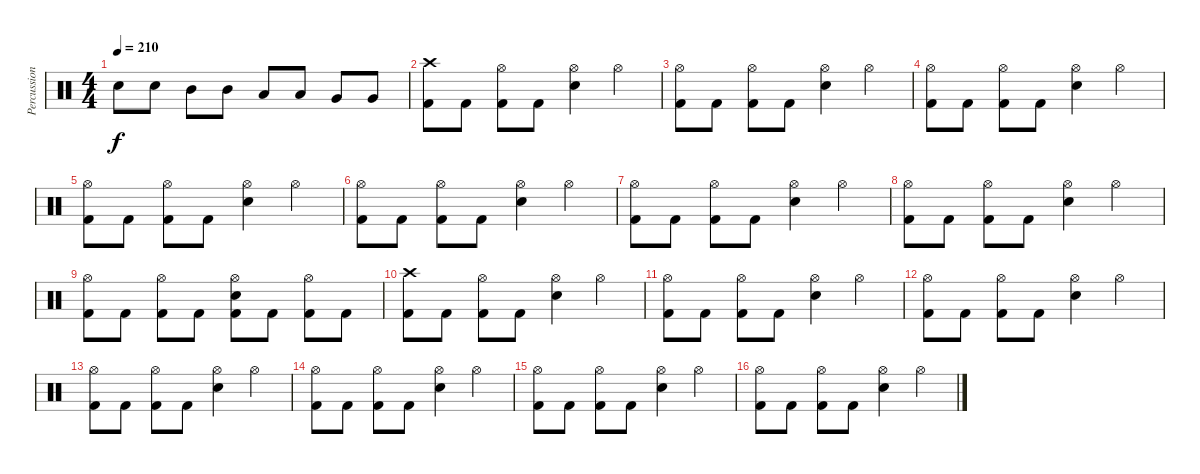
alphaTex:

\track ("Percussions" "Percussion") {instrument percussion}
\staff {score}
\articulation defaults
\ts (4 4)
\tempo 210
\clef neutral
\ks c "Electric Snare (hit)".8{dy f} "Electric Snare (hit)".8 "Mid Tom (hit)".8 "Mid Tom (hit)".8 "Low Tom (hit)".8 "Low Tom (hit)".8 "Very Low Tom (hit)".8 "Very Low Tom (hit)".8
|
("Kick (hit) 2" "Crash high (hit)").8 "Kick (hit) 2".8 ("Kick (hit) 2" "Hi-Hat (open)").8 "Kick (hit) 2".8 ("Electric Snare (hit)" "Hi-Hat (open)").4 "Hi-Hat (open)".4 |
("Kick (hit) 2" "Hi-Hat (open)").8 "Kick (hit) 2".8 ("Kick (hit) 2" "Hi-Hat (open)").8 "Kick (hit) 2".8 ("Electric Snare (hit)" "Hi-Hat (open)").4 "Hi-Hat (open)".4 |
("Kick (hit) 2" "Hi-Hat (open)").8 "Kick (hit) 2".8 ("Kick (hit) 2" "Hi-Hat (open)").8 "Kick (hit) 2".8 ("Electric Snare (hit)" "Hi-Hat (open)").4 "Hi-Hat (open)".4 |
("Kick (hit) 2" "Hi-Hat (open)").8 "Kick (hit) 2".8 ("Kick (hit) 2" "Hi-Hat (open)").8 "Kick (hit) 2".8 ("Electric Snare (hit)" "Hi-Hat (open)").4 "Hi-Hat (open)".4 |
("Kick (hit) 2" "Hi-Hat (open)").8 "Kick (hit) 2".8 ("Kick (hit) 2" "Hi-Hat (open)").8 "Kick (hit) 2".8 ("Electric Snare (hit)" "Hi-Hat (open)").4 "Hi-Hat (open)".4 |
("Kick (hit) 2" "Hi-Hat (open)").8 "Kick (hit) 2".8 ("Kick (hit) 2" "Hi-Hat (open)").8 "Kick (hit) 2".8 ("Electric Snare (hit)" "Hi-Hat (open)").4 "Hi-Hat (open)".4 |
("Kick (hit) 2" "Hi-Hat (open)").8 "Kick (hit) 2".8 ("Kick (hit) 2" "Hi-Hat (open)").8 "Kick (hit) 2".8 ("Electric Snare (hit)" "Hi-Hat (open)").4 "Hi-Hat (open)".4 |
("Kick (hit) 2" "Hi-Hat (open)").8 "Kick (hit) 2".8 ("Kick (hit) 2" "Hi-Hat (open)").8 "Kick (hit) 2".8 ("Kick (hit) 2" "Electric Snare (hit)" "Hi-Hat (open)").8 "Kick (hit) 2".8 ("Kick (hit) 2" "Hi-Hat (open)").8 "Kick (hit) 2".8 |
("Kick (hit) 2" "Crash high (hit)").8 "Kick (hit) 2".8 ("Kick (hit) 2" "Hi-Hat (open)").8 "Kick (hit) 2".8 ("Electric Snare (hit)" "Hi-Hat (open)").4 "Hi-Hat (open)".4 |
("Kick (hit) 2" "Hi-Hat (open)").8 "Kick (hit) 2".8 ("Kick (hit) 2" "Hi-Hat (open)").8 "Kick (hit) 2".8 ("Electric Snare (hit)" "Hi-Hat (open)").4 "Hi-Hat (open)".4 |
("Kick (hit) 2" "Hi-Hat (open)").8 "Kick (hit) 2".8 ("Kick (hit) 2" "Hi-Hat (open)").8 "Kick (hit) 2".8 ("Electric Snare (hit)" "Hi-Hat (open)").4 "Hi-Hat (open)".4 |
("Kick (hit) 2" "Hi-Hat (open)").8 "Kick (hit) 2".8 ("Kick (hit) 2" "Hi-Hat (open)").8 "Kick (hit) 2".8 ("Electric Snare (hit)" "Hi-Hat (open)").4 "Hi-Hat (open)".4 |
("Kick (hit) 2" "Hi-Hat (open)").8 "Kick (hit) 2".8 ("Kick (hit) 2" "Hi-Hat (open)").8 "Kick (hit) 2".8 ("Electric Snare (hit)" "Hi-Hat (open)").4 "Hi-Hat (open)".4 |
("Kick (hit) 2" "Hi-Hat (open)").8 "Kick (hit) 2".8 ("Kick (hit) 2" "Hi-Hat (open)").8 "Kick (hit) 2".8 ("Electric Snare (hit)" "Hi-Hat (open)").4 "Hi-Hat (open)".4 |
("Kick (hit) 2" "Hi-Hat (open)").8 "Kick (hit) 2".8 ("Kick (hit) 2" "Hi-Hat (open)").8 "Kick (hit) 2".8 ("Electric Snare (hit)" "Hi-Hat (open)").4 "Hi-Hat (open)".4
